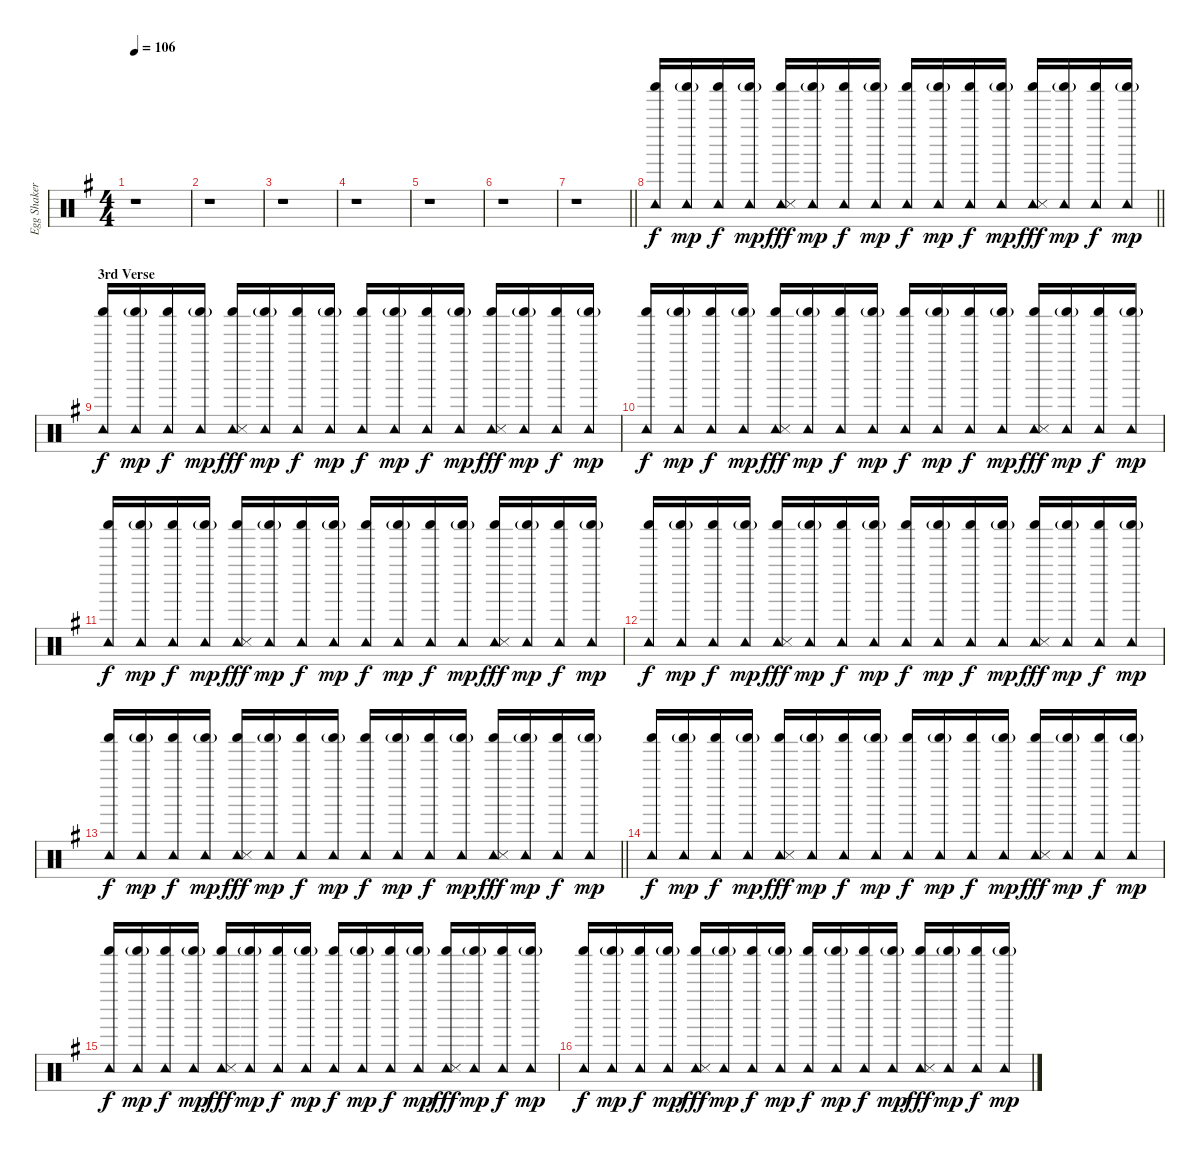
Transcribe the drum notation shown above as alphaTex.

\track ("Egg Shaker and Tambourine" "Egg Shaker") {instrument percussion}
\staff {score}
\articulation defaults
\ts (4 4)
\tempo 106
\clef neutral
\ks eminor
r.1{dy mp} |
r.1 |
r.1 |
r.1 |
r.1 |
r.1 |
\barLineRight lightlight
r.1 |
\barLineRight lightlight
("Tambourine (hit)" "Shaker (hit)").16{dy f beam Up} ("Tambourine (hit)" "Shaker (hit)"{g}).16{dy mp beam Up} ("Tambourine (hit)" "Shaker (hit)").16{dy f beam Up} ("Tambourine (hit)" "Shaker (hit)"{g}).16{dy mp beam Up} ("Tambourine (hit)" "Shaker (hit)" "Snare (side stick) 3").16{dy fff beam Up} ("Tambourine (hit)" "Shaker (hit)"{g}).16{dy mp beam Up} ("Tambourine (hit)" "Shaker (hit)").16{dy f beam Up} ("Tambourine (hit)" "Shaker (hit)"{g}).16{dy mp beam Up} ("Tambourine (hit)" "Shaker (hit)").16{dy f beam Up} ("Tambourine (hit)" "Shaker (hit)"{g}).16{dy mp beam Up} ("Tambourine (hit)" "Shaker (hit)").16{dy f beam Up} ("Tambourine (hit)" "Shaker (hit)"{g}).16{dy mp beam Up} ("Tambourine (hit)" "Shaker (hit)" "Snare (side stick) 3").16{dy fff beam Up} ("Tambourine (hit)" "Shaker (hit)"{g}).16{dy mp beam Up} ("Tambourine (hit)" "Shaker (hit)").16{dy f beam Up} ("Tambourine (hit)" "Shaker (hit)"{g}).16{dy mp beam Up} |
\section ("" "3rd Verse")
("Tambourine (hit)" "Shaker (hit)").16{dy f beam Up} ("Tambourine (hit)" "Shaker (hit)"{g}).16{dy mp beam Up} ("Tambourine (hit)" "Shaker (hit)").16{dy f beam Up} ("Tambourine (hit)" "Shaker (hit)"{g}).16{dy mp beam Up} ("Tambourine (hit)" "Shaker (hit)" "Snare (side stick) 3").16{dy fff beam Up} ("Tambourine (hit)" "Shaker (hit)"{g}).16{dy mp beam Up} ("Tambourine (hit)" "Shaker (hit)").16{dy f beam Up} ("Tambourine (hit)" "Shaker (hit)"{g}).16{dy mp beam Up} ("Tambourine (hit)" "Shaker (hit)").16{dy f beam Up} ("Tambourine (hit)" "Shaker (hit)"{g}).16{dy mp beam Up} ("Tambourine (hit)" "Shaker (hit)").16{dy f beam Up} ("Tambourine (hit)" "Shaker (hit)"{g}).16{dy mp beam Up} ("Tambourine (hit)" "Shaker (hit)" "Snare (side stick) 3").16{dy fff beam Up} ("Tambourine (hit)" "Shaker (hit)"{g}).16{dy mp beam Up} ("Tambourine (hit)" "Shaker (hit)").16{dy f beam Up} ("Tambourine (hit)" "Shaker (hit)"{g}).16{dy mp beam Up} |
("Tambourine (hit)" "Shaker (hit)").16{dy f beam Up} ("Tambourine (hit)" "Shaker (hit)"{g}).16{dy mp beam Up} ("Tambourine (hit)" "Shaker (hit)").16{dy f beam Up} ("Tambourine (hit)" "Shaker (hit)"{g}).16{dy mp beam Up} ("Tambourine (hit)" "Shaker (hit)" "Snare (side stick) 3").16{dy fff beam Up} ("Tambourine (hit)" "Shaker (hit)"{g}).16{dy mp beam Up} ("Tambourine (hit)" "Shaker (hit)").16{dy f beam Up} ("Tambourine (hit)" "Shaker (hit)"{g}).16{dy mp beam Up} ("Tambourine (hit)" "Shaker (hit)").16{dy f beam Up} ("Tambourine (hit)" "Shaker (hit)"{g}).16{dy mp beam Up} ("Tambourine (hit)" "Shaker (hit)").16{dy f beam Up} ("Tambourine (hit)" "Shaker (hit)"{g}).16{dy mp beam Up} ("Tambourine (hit)" "Shaker (hit)" "Snare (side stick) 3").16{dy fff beam Up} ("Tambourine (hit)" "Shaker (hit)"{g}).16{dy mp beam Up} ("Tambourine (hit)" "Shaker (hit)").16{dy f beam Up} ("Tambourine (hit)" "Shaker (hit)"{g}).16{dy mp beam Up} |
("Tambourine (hit)" "Shaker (hit)").16{dy f beam Up} ("Tambourine (hit)" "Shaker (hit)"{g}).16{dy mp beam Up} ("Tambourine (hit)" "Shaker (hit)").16{dy f beam Up} ("Tambourine (hit)" "Shaker (hit)"{g}).16{dy mp beam Up} ("Tambourine (hit)" "Shaker (hit)" "Snare (side stick) 3").16{dy fff beam Up} ("Tambourine (hit)" "Shaker (hit)"{g}).16{dy mp beam Up} ("Tambourine (hit)" "Shaker (hit)").16{dy f beam Up} ("Tambourine (hit)" "Shaker (hit)"{g}).16{dy mp beam Up} ("Tambourine (hit)" "Shaker (hit)").16{dy f beam Up} ("Tambourine (hit)" "Shaker (hit)"{g}).16{dy mp beam Up} ("Tambourine (hit)" "Shaker (hit)").16{dy f beam Up} ("Tambourine (hit)" "Shaker (hit)"{g}).16{dy mp beam Up} ("Tambourine (hit)" "Shaker (hit)" "Snare (side stick) 3").16{dy fff beam Up} ("Tambourine (hit)" "Shaker (hit)"{g}).16{dy mp beam Up} ("Tambourine (hit)" "Shaker (hit)").16{dy f beam Up} ("Tambourine (hit)" "Shaker (hit)"{g}).16{dy mp beam Up} |
("Tambourine (hit)" "Shaker (hit)").16{dy f beam Up} ("Tambourine (hit)" "Shaker (hit)"{g}).16{dy mp beam Up} ("Tambourine (hit)" "Shaker (hit)").16{dy f beam Up} ("Tambourine (hit)" "Shaker (hit)"{g}).16{dy mp beam Up} ("Tambourine (hit)" "Shaker (hit)" "Snare (side stick) 3").16{dy fff beam Up} ("Tambourine (hit)" "Shaker (hit)"{g}).16{dy mp beam Up} ("Tambourine (hit)" "Shaker (hit)").16{dy f beam Up} ("Tambourine (hit)" "Shaker (hit)"{g}).16{dy mp beam Up} ("Tambourine (hit)" "Shaker (hit)").16{dy f beam Up} ("Tambourine (hit)" "Shaker (hit)"{g}).16{dy mp beam Up} ("Tambourine (hit)" "Shaker (hit)").16{dy f beam Up} ("Tambourine (hit)" "Shaker (hit)"{g}).16{dy mp beam Up} ("Tambourine (hit)" "Shaker (hit)" "Snare (side stick) 3").16{dy fff beam Up} ("Tambourine (hit)" "Shaker (hit)"{g}).16{dy mp beam Up} ("Tambourine (hit)" "Shaker (hit)").16{dy f beam Up} ("Tambourine (hit)" "Shaker (hit)"{g}).16{dy mp beam Up} |
\barLineRight lightlight
("Tambourine (hit)" "Shaker (hit)").16{dy f beam Up} ("Tambourine (hit)" "Shaker (hit)"{g}).16{dy mp beam Up} ("Tambourine (hit)" "Shaker (hit)").16{dy f beam Up} ("Tambourine (hit)" "Shaker (hit)"{g}).16{dy mp beam Up} ("Tambourine (hit)" "Shaker (hit)" "Snare (side stick) 3").16{dy fff beam Up} ("Tambourine (hit)" "Shaker (hit)"{g}).16{dy mp beam Up} ("Tambourine (hit)" "Shaker (hit)").16{dy f beam Up} ("Tambourine (hit)" "Shaker (hit)"{g}).16{dy mp beam Up} ("Tambourine (hit)" "Shaker (hit)").16{dy f beam Up} ("Tambourine (hit)" "Shaker (hit)"{g}).16{dy mp beam Up} ("Tambourine (hit)" "Shaker (hit)").16{dy f beam Up} ("Tambourine (hit)" "Shaker (hit)"{g}).16{dy mp beam Up} ("Tambourine (hit)" "Shaker (hit)" "Snare (side stick) 3").16{dy fff beam Up} ("Tambourine (hit)" "Shaker (hit)"{g}).16{dy mp beam Up} ("Tambourine (hit)" "Shaker (hit)").16{dy f beam Up} ("Tambourine (hit)" "Shaker (hit)"{g}).16{dy mp beam Up} |
("Tambourine (hit)" "Shaker (hit)").16{dy f beam Up} ("Tambourine (hit)" "Shaker (hit)"{g}).16{dy mp beam Up} ("Tambourine (hit)" "Shaker (hit)").16{dy f beam Up} ("Tambourine (hit)" "Shaker (hit)"{g}).16{dy mp beam Up} ("Tambourine (hit)" "Shaker (hit)" "Snare (side stick) 3").16{dy fff beam Up} ("Tambourine (hit)" "Shaker (hit)"{g}).16{dy mp beam Up} ("Tambourine (hit)" "Shaker (hit)").16{dy f beam Up} ("Tambourine (hit)" "Shaker (hit)"{g}).16{dy mp beam Up} ("Tambourine (hit)" "Shaker (hit)").16{dy f beam Up} ("Tambourine (hit)" "Shaker (hit)"{g}).16{dy mp beam Up} ("Tambourine (hit)" "Shaker (hit)").16{dy f beam Up} ("Tambourine (hit)" "Shaker (hit)"{g}).16{dy mp beam Up} ("Tambourine (hit)" "Shaker (hit)" "Snare (side stick) 3").16{dy fff beam Up} ("Tambourine (hit)" "Shaker (hit)"{g}).16{dy mp beam Up} ("Tambourine (hit)" "Shaker (hit)").16{dy f beam Up} ("Tambourine (hit)" "Shaker (hit)"{g}).16{dy mp beam Up} |
("Tambourine (hit)" "Shaker (hit)").16{dy f beam Up} ("Tambourine (hit)" "Shaker (hit)"{g}).16{dy mp beam Up} ("Tambourine (hit)" "Shaker (hit)").16{dy f beam Up} ("Tambourine (hit)" "Shaker (hit)"{g}).16{dy mp beam Up} ("Tambourine (hit)" "Shaker (hit)" "Snare (side stick) 3").16{dy fff beam Up} ("Tambourine (hit)" "Shaker (hit)"{g}).16{dy mp beam Up} ("Tambourine (hit)" "Shaker (hit)").16{dy f beam Up} ("Tambourine (hit)" "Shaker (hit)"{g}).16{dy mp beam Up} ("Tambourine (hit)" "Shaker (hit)").16{dy f beam Up} ("Tambourine (hit)" "Shaker (hit)"{g}).16{dy mp beam Up} ("Tambourine (hit)" "Shaker (hit)").16{dy f beam Up} ("Tambourine (hit)" "Shaker (hit)"{g}).16{dy mp beam Up} ("Tambourine (hit)" "Shaker (hit)" "Snare (side stick) 3").16{dy fff beam Up} ("Tambourine (hit)" "Shaker (hit)"{g}).16{dy mp beam Up} ("Tambourine (hit)" "Shaker (hit)").16{dy f beam Up} ("Tambourine (hit)" "Shaker (hit)"{g}).16{dy mp beam Up} |
("Tambourine (hit)" "Shaker (hit)").16{dy f beam Up} ("Tambourine (hit)" "Shaker (hit)"{g}).16{dy mp beam Up} ("Tambourine (hit)" "Shaker (hit)").16{dy f beam Up} ("Tambourine (hit)" "Shaker (hit)"{g}).16{dy mp beam Up} ("Tambourine (hit)" "Shaker (hit)" "Snare (side stick) 3").16{dy fff beam Up} ("Tambourine (hit)" "Shaker (hit)"{g}).16{dy mp beam Up} ("Tambourine (hit)" "Shaker (hit)").16{dy f beam Up} ("Tambourine (hit)" "Shaker (hit)"{g}).16{dy mp beam Up} ("Tambourine (hit)" "Shaker (hit)").16{dy f beam Up} ("Tambourine (hit)" "Shaker (hit)"{g}).16{dy mp beam Up} ("Tambourine (hit)" "Shaker (hit)").16{dy f beam Up} ("Tambourine (hit)" "Shaker (hit)"{g}).16{dy mp beam Up} ("Tambourine (hit)" "Shaker (hit)" "Snare (side stick) 3").16{dy fff beam Up} ("Tambourine (hit)" "Shaker (hit)"{g}).16{dy mp beam Up} ("Tambourine (hit)" "Shaker (hit)").16{dy f beam Up} ("Tambourine (hit)" "Shaker (hit)"{g}).16{dy mp beam Up}
